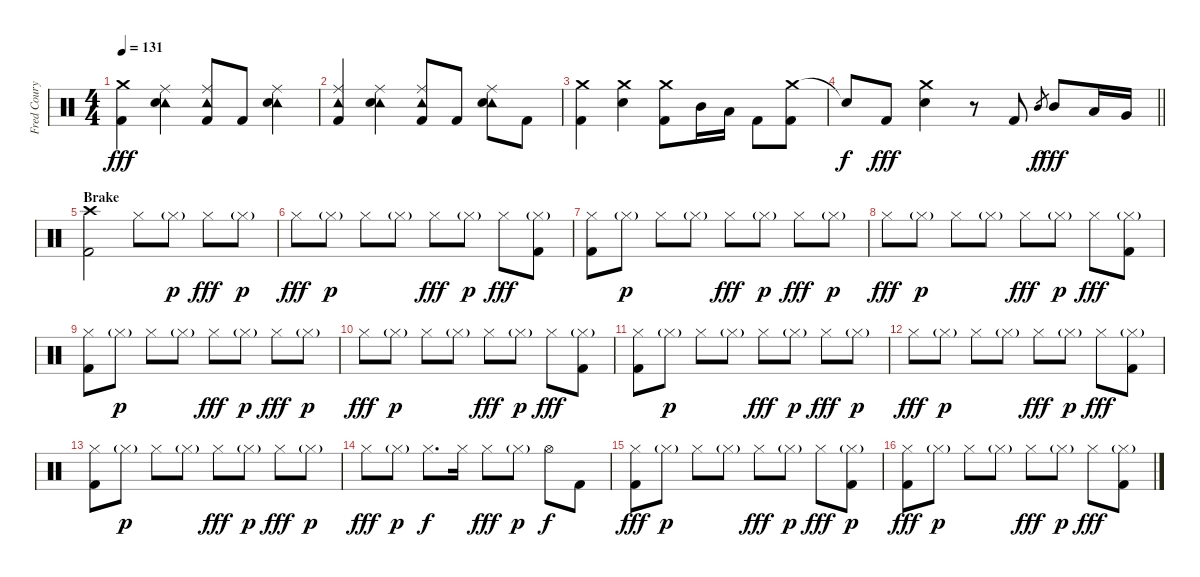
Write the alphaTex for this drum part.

\track ("Fred Coury - Drums" "Fred Coury") {instrument percussion}
\staff {score}
\articulation defaults
\ts (4 4)
\tempo 131
\clef neutral
\ks c
("Crash medium (hit)" "Kick (hit) 2").4{dy fff} ("Ride (middle)" "Tambourine (hit)" "Snare (hit) 2").4 ("Ride (middle)" "Tambourine (hit)" "Kick (hit) 2").8 "Kick (hit) 2".8 ("Ride (middle)" "Tambourine (hit)" "Snare (hit) 2").4 |
("Ride (middle)" "Tambourine (hit)" "Kick (hit) 2").4 ("Ride (middle)" "Tambourine (hit)" "Snare (hit) 2").4 ("Ride (middle)" "Tambourine (hit)" "Kick (hit) 2").8 "Kick (hit) 2".8 ("Ride (middle)" "Tambourine (hit)" "Snare (hit) 2").8 "Kick (hit) 2".8 |
("Crash medium (hit)" "Kick (hit) 2").4 ("Crash medium (hit)" "Snare (hit) 2").4 ("Crash medium (hit)" "Kick (hit) 2").8 "Mid Tom (hit)".16 "Low Tom (hit)".16 "Kick (hit) 2".8 ("Crash medium (hit)" "Kick (hit) 2").8 |
\barLineRight lightlight "Snare (hit)"{t}.8{dy f} "Kick (hit) 2".8{dy fff}
("Crash medium (hit)" "Snare (hit) 2").4 r.8 "Kick (hit) 2".8 "Mid Tom (hit)".8{gr dy f} "Mid Tom (hit)".8{dy fff} "Low Tom (hit)".16 "Very Low Tom (hit)".16 |
\section ("" "Brake")
("Crash high (hit)" "Kick (hit) 2").2 "Hi-Hat (closed)".8 "Hi-Hat (closed)"{g}.8{dy p} "Hi-Hat (closed)".8{dy fff} "Hi-Hat (closed)"{g}.8{dy p} |
"Hi-Hat (closed)".8{dy fff} "Hi-Hat (closed)"{g}.8{dy p} "Hi-Hat (closed)".8 "Hi-Hat (closed)"{g}.8 "Hi-Hat (closed)".8{dy fff} "Hi-Hat (closed)"{g}.8{dy p} "Hi-Hat (closed)".8{dy fff} ("Hi-Hat (closed)"{g} "Kick (hit) 2").8 |
("Hi-Hat (closed)" "Kick (hit) 2").8 "Hi-Hat (closed)"{g}.8{dy p} "Hi-Hat (closed)".8 "Hi-Hat (closed)"{g}.8 "Hi-Hat (closed)".8{dy fff} "Hi-Hat (closed)"{g}.8{dy p} "Hi-Hat (closed)".8{dy fff} "Hi-Hat (closed)"{g}.8{dy p} |
"Hi-Hat (closed)".8{dy fff} "Hi-Hat (closed)"{g}.8{dy p} "Hi-Hat (closed)".8 "Hi-Hat (closed)"{g}.8 "Hi-Hat (closed)".8{dy fff} "Hi-Hat (closed)"{g}.8{dy p} "Hi-Hat (closed)".8{dy fff} ("Hi-Hat (closed)"{g} "Kick (hit) 2").8 |
("Hi-Hat (closed)" "Kick (hit) 2").8 "Hi-Hat (closed)"{g}.8{dy p} "Hi-Hat (closed)".8 "Hi-Hat (closed)"{g}.8 "Hi-Hat (closed)".8{dy fff} "Hi-Hat (closed)"{g}.8{dy p} "Hi-Hat (closed)".8{dy fff} "Hi-Hat (closed)"{g}.8{dy p} |
"Hi-Hat (closed)".8{dy fff} "Hi-Hat (closed)"{g}.8{dy p} "Hi-Hat (closed)".8 "Hi-Hat (closed)"{g}.8 "Hi-Hat (closed)".8{dy fff} "Hi-Hat (closed)"{g}.8{dy p} "Hi-Hat (closed)".8{dy fff} ("Hi-Hat (closed)"{g} "Kick (hit) 2").8 |
("Hi-Hat (closed)" "Kick (hit) 2").8 "Hi-Hat (closed)"{g}.8{dy p} "Hi-Hat (closed)".8 "Hi-Hat (closed)"{g}.8 "Hi-Hat (closed)".8{dy fff} "Hi-Hat (closed)"{g}.8{dy p} "Hi-Hat (closed)".8{dy fff} "Hi-Hat (closed)"{g}.8{dy p} |
"Hi-Hat (closed)".8{dy fff} "Hi-Hat (closed)"{g}.8{dy p} "Hi-Hat (closed)".8 "Hi-Hat (closed)"{g}.8 "Hi-Hat (closed)".8{dy fff} "Hi-Hat (closed)"{g}.8{dy p} "Hi-Hat (closed)".8{dy fff} ("Hi-Hat (closed)"{g} "Kick (hit) 2").8 |
("Hi-Hat (closed)" "Kick (hit) 2").8 "Hi-Hat (closed)"{g}.8{dy p} "Hi-Hat (closed)".8 "Hi-Hat (closed)"{g}.8 "Hi-Hat (closed)".8{dy fff} "Hi-Hat (closed)"{g}.8{dy p} "Hi-Hat (closed)".8{dy fff} "Hi-Hat (closed)"{g}.8{dy p} |
"Hi-Hat (closed)".8{dy fff} "Hi-Hat (closed)"{g}.8{dy p} "Hi-Hat (closed)".8{d dy f} "Hi-Hat (closed)".16 "Hi-Hat (closed)".8{dy fff} "Hi-Hat (closed)"{g}.8{dy p} "Hi-Hat (open)".8{dy f} "Kick (hit) 2".8 |
("Hi-Hat (closed)" "Kick (hit) 2").8{dy fff} "Hi-Hat (closed)"{g}.8{dy p} "Hi-Hat (closed)".8 "Hi-Hat (closed)"{g}.8 "Hi-Hat (closed)".8{dy fff} "Hi-Hat (closed)"{g}.8{dy p} "Hi-Hat (closed)".8{dy fff} ("Hi-Hat (closed)"{g} "Kick (hit) 2").8{dy p} |
("Hi-Hat (closed)" "Kick (hit) 2").8{dy fff} "Hi-Hat (closed)"{g}.8{dy p} "Hi-Hat (closed)".8 "Hi-Hat (closed)"{g}.8 "Hi-Hat (closed)".8{dy fff} "Hi-Hat (closed)"{g}.8{dy p} "Hi-Hat (closed)".8{dy fff} ("Hi-Hat (closed)"{g} "Kick (hit) 2").8
